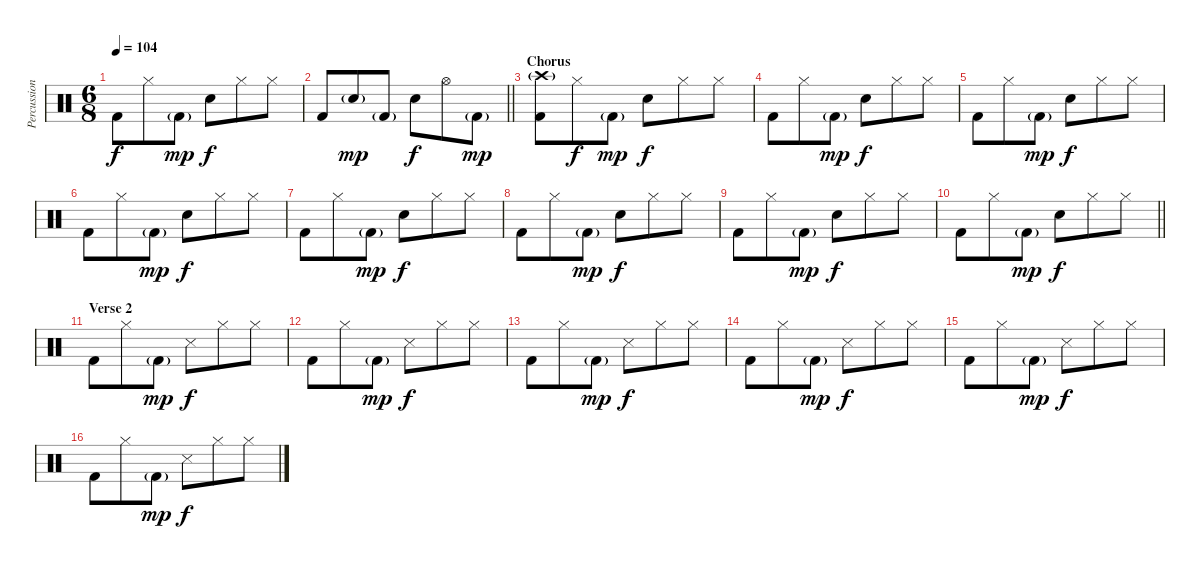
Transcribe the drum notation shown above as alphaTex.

\track ("Percussion" "Percussion") {instrument percussion}
\staff {score}
\articulation defaults
\ts (6 8)
\tempo 104
\clef neutral
\ks c "Kick (hit) 2".8{dy f} "Hi-Hat (closed)".8 "Kick (hit) 2"{g}.8{dy mp} "Snare (hit) 2".8{dy f} "Hi-Hat (closed)".8 "Hi-Hat (closed)".8
|
\barLineRight lightlight "Kick (hit) 2".8 "Snare (hit) 2"{g}.8{dy mp} "Kick (hit) 2"{g}.8 "Snare (hit) 2".8{dy f} "Hi-Hat (open)".8 "Kick (hit) 2"{g}.8{dy mp}
|
\section ("" "Chorus")
("Crash high (hit)"{g} "Kick (hit) 2").8 "Hi-Hat (closed)".8{dy f} "Kick (hit) 2"{g}.8{dy mp} "Snare (hit) 2".8{dy f} "Hi-Hat (closed)".8 "Hi-Hat (closed)".8 |
"Kick (hit) 2".8 "Hi-Hat (closed)".8 "Kick (hit) 2"{g}.8{dy mp} "Snare (hit) 2".8{dy f} "Hi-Hat (closed)".8 "Hi-Hat (closed)".8 |
"Kick (hit) 2".8 "Hi-Hat (closed)".8 "Kick (hit) 2"{g}.8{dy mp} "Snare (hit) 2".8{dy f} "Hi-Hat (closed)".8 "Hi-Hat (closed)".8 |
"Kick (hit) 2".8 "Hi-Hat (closed)".8 "Kick (hit) 2"{g}.8{dy mp} "Snare (hit) 2".8{dy f} "Hi-Hat (closed)".8 "Hi-Hat (closed)".8 |
"Kick (hit) 2".8 "Hi-Hat (closed)".8 "Kick (hit) 2"{g}.8{dy mp} "Snare (hit) 2".8{dy f} "Hi-Hat (closed)".8 "Hi-Hat (closed)".8 |
"Kick (hit) 2".8 "Hi-Hat (closed)".8 "Kick (hit) 2"{g}.8{dy mp} "Snare (hit) 2".8{dy f} "Hi-Hat (closed)".8 "Hi-Hat (closed)".8 |
"Kick (hit) 2".8 "Hi-Hat (closed)".8 "Kick (hit) 2"{g}.8{dy mp} "Snare (hit) 2".8{dy f} "Hi-Hat (closed)".8 "Hi-Hat (closed)".8 |
\barLineRight lightlight "Kick (hit) 2".8 "Hi-Hat (closed)".8 "Kick (hit) 2"{g}.8{dy mp} "Snare (hit) 2".8{dy f} "Hi-Hat (closed)".8 "Hi-Hat (closed)".8
|
\section ("" "Verse 2")
"Kick (hit) 2".8 "Hi-Hat (closed)".8 "Kick (hit) 2"{g}.8{dy mp} "Snare (side stick) 3".8{dy f} "Hi-Hat (closed)".8 "Hi-Hat (closed)".8 |
"Kick (hit) 2".8 "Hi-Hat (closed)".8 "Kick (hit) 2"{g}.8{dy mp} "Snare (side stick) 3".8{dy f} "Hi-Hat (closed)".8 "Hi-Hat (closed)".8 |
"Kick (hit) 2".8 "Hi-Hat (closed)".8 "Kick (hit) 2"{g}.8{dy mp} "Snare (side stick) 3".8{dy f} "Hi-Hat (closed)".8 "Hi-Hat (closed)".8 |
"Kick (hit) 2".8 "Hi-Hat (closed)".8 "Kick (hit) 2"{g}.8{dy mp} "Snare (side stick) 3".8{dy f} "Hi-Hat (closed)".8 "Hi-Hat (closed)".8 |
"Kick (hit) 2".8 "Hi-Hat (closed)".8 "Kick (hit) 2"{g}.8{dy mp} "Snare (side stick) 3".8{dy f} "Hi-Hat (closed)".8 "Hi-Hat (closed)".8 |
"Kick (hit) 2".8 "Hi-Hat (closed)".8 "Kick (hit) 2"{g}.8{dy mp} "Snare (side stick) 3".8{dy f} "Hi-Hat (closed)".8 "Hi-Hat (closed)".8
